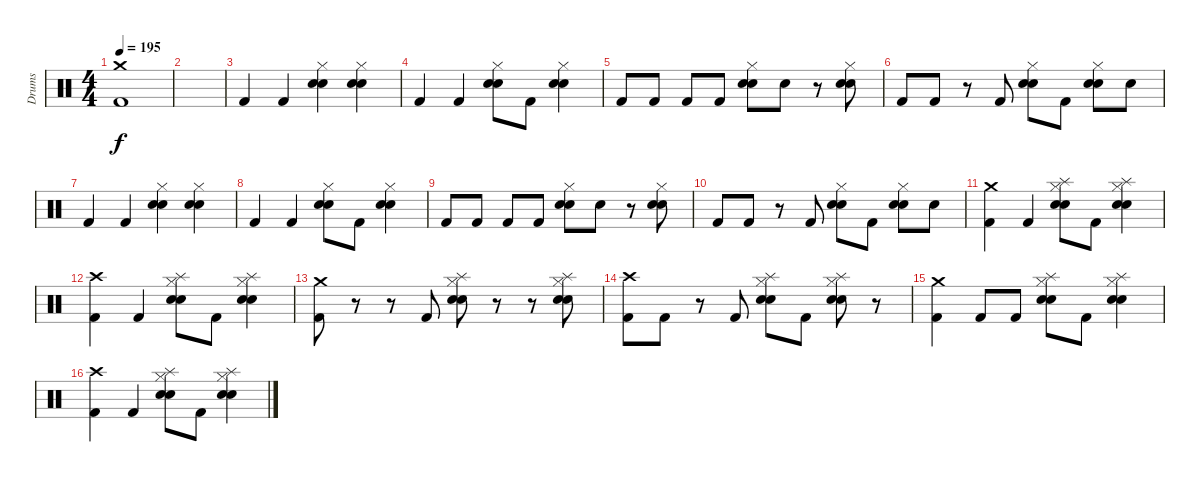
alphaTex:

\track ("Drums" "Drums") {instrument percussion}
\staff {score}
\articulation defaults
\ts (4 4)
\tempo 195
\clef neutral
\ks c
("Crash medium (hit)" "Kick (hit) 2").1{dy f} |
|
"Kick (hit) 2".4 "Kick (hit) 2".4 ("Hi-Hat (closed)" "Electric Snare (hit)" "Snare (hit) 2").4 ("Hi-Hat (closed)" "Electric Snare (hit)" "Snare (hit) 2").4 |
"Kick (hit) 2".4 "Kick (hit) 2".4 ("Hi-Hat (closed)" "Electric Snare (hit)" "Snare (hit) 2").8 "Kick (hit) 2".8 ("Hi-Hat (closed)" "Electric Snare (hit)" "Snare (hit) 2").4 |
"Kick (hit) 2".8 "Kick (hit) 2".8 "Kick (hit) 2".8 "Kick (hit) 2".8 ("Hi-Hat (closed)" "Electric Snare (hit)" "Snare (hit) 2").8 "Electric Snare (hit)".8 r.8 ("Hi-Hat (closed)" "Electric Snare (hit)" "Snare (hit) 2").8 |
"Kick (hit) 2".8 "Kick (hit) 2".8 r.8 "Kick (hit) 2".8 ("Hi-Hat (closed)" "Electric Snare (hit)" "Snare (hit) 2").8 "Kick (hit) 2".8 ("Hi-Hat (closed)" "Electric Snare (hit)" "Snare (hit) 2").8 "Electric Snare (hit)".8 |
"Kick (hit) 2".4 "Kick (hit) 2".4 ("Hi-Hat (closed)" "Electric Snare (hit)" "Snare (hit) 2").4 ("Hi-Hat (closed)" "Electric Snare (hit)" "Snare (hit) 2").4 |
"Kick (hit) 2".4 "Kick (hit) 2".4 ("Hi-Hat (closed)" "Electric Snare (hit)" "Snare (hit) 2").8 "Kick (hit) 2".8 ("Hi-Hat (closed)" "Electric Snare (hit)" "Snare (hit) 2").4 |
"Kick (hit) 2".8 "Kick (hit) 2".8 "Kick (hit) 2".8 "Kick (hit) 2".8 ("Hi-Hat (closed)" "Electric Snare (hit)" "Snare (hit) 2").8 "Electric Snare (hit)".8 r.8 ("Hi-Hat (closed)" "Electric Snare (hit)" "Snare (hit) 2").8 |
"Kick (hit) 2".8 "Kick (hit) 2".8 r.8 "Kick (hit) 2".8 ("Hi-Hat (closed)" "Electric Snare (hit)" "Snare (hit) 2").8 "Kick (hit) 2".8 ("Hi-Hat (closed)" "Electric Snare (hit)" "Snare (hit) 2").8 "Electric Snare (hit)".8 |
("Crash medium (hit)" "Kick (hit) 2").4 "Kick (hit) 2".4 ("Splash (hit)" "Hi-Hat (closed)" "Electric Snare (hit)" "Snare (hit) 2").8 "Kick (hit) 2".8 ("Splash (hit)" "Hi-Hat (closed)" "Electric Snare (hit)" "Snare (hit) 2").4 |
("Crash high (hit)" "Kick (hit) 2").4 "Kick (hit) 2".4 ("Splash (hit)" "Hi-Hat (closed)" "Electric Snare (hit)" "Snare (hit) 2").8 "Kick (hit) 2".8 ("Splash (hit)" "Hi-Hat (closed)" "Electric Snare (hit)" "Snare (hit) 2").4 |
("Crash medium (hit)" "Kick (hit) 2").8 r.8 r.8 "Kick (hit) 2".8 ("Splash (hit)" "Hi-Hat (closed)" "Electric Snare (hit)" "Snare (hit) 2").8 r.8 r.8 ("Splash (hit)" "Hi-Hat (closed)" "Electric Snare (hit)" "Snare (hit) 2").8 |
("Crash high (hit)" "Kick (hit) 2").8 "Kick (hit) 2".8 r.8 "Kick (hit) 2".8 ("Splash (hit)" "Hi-Hat (closed)" "Electric Snare (hit)" "Snare (hit) 2").8 "Kick (hit) 2".8 ("Splash (hit)" "Hi-Hat (closed)" "Electric Snare (hit)" "Snare (hit) 2").8 r.8 |
("Crash medium (hit)" "Kick (hit) 2").4 "Kick (hit) 2".8 "Kick (hit) 2".8 ("Splash (hit)" "Hi-Hat (closed)" "Electric Snare (hit)" "Snare (hit) 2").8 "Kick (hit) 2".8 ("Splash (hit)" "Hi-Hat (closed)" "Electric Snare (hit)" "Snare (hit) 2").4 |
("Crash high (hit)" "Kick (hit) 2").4 "Kick (hit) 2".4 ("Splash (hit)" "Hi-Hat (closed)" "Electric Snare (hit)" "Snare (hit) 2").8 "Kick (hit) 2".8 ("Splash (hit)" "Hi-Hat (closed)" "Electric Snare (hit)" "Snare (hit) 2").4
